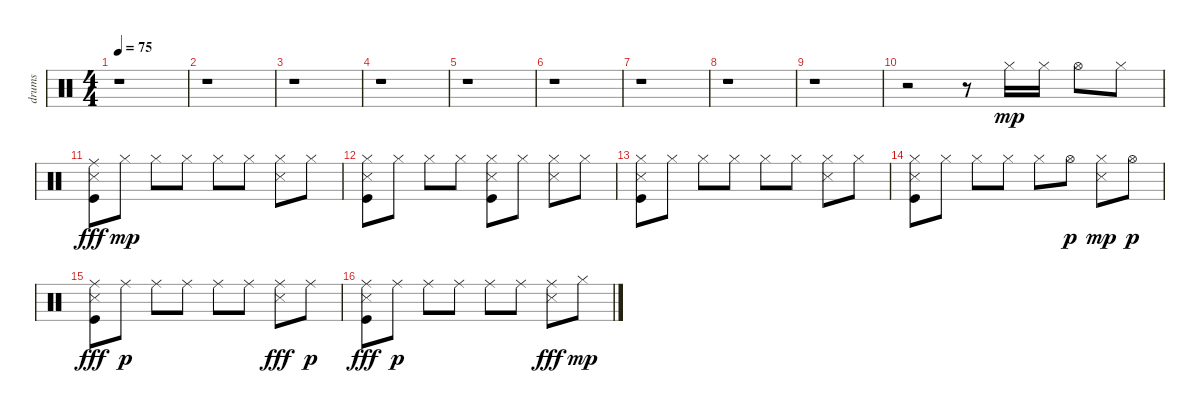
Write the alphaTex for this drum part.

\track ("drums" "drums") {instrument percussion}
\staff {score}
\articulation defaults
\ts (4 4)
\tempo 75
\clef neutral
\ks c
r.1{dy mp} |
r.1 |
r.1 |
r.1 |
r.1 |
r.1 |
r.1 |
r.1 |
r.1 |
r.2 r.8 "Hi-Hat (closed)".16 "Hi-Hat (closed)".16 "Hi-Hat (open)".8 "Hi-Hat (closed)".8 |
("Ride (middle)" "Metronome (hit)" "Kick (hit)").8{dy fff} "Hi-Hat (closed)".8{dy mp} "Hi-Hat (closed)".8 "Hi-Hat (closed)".8 "Hi-Hat (closed)".8 "Hi-Hat (closed)".8 ("Metronome (hit)" "Hi-Hat (closed)").8 "Hi-Hat (closed)".8 |
("Metronome (hit)" "Hi-Hat (closed)" "Kick (hit)").8 "Hi-Hat (closed)".8 "Hi-Hat (closed)".8 "Hi-Hat (closed)".8 ("Metronome (hit)" "Hi-Hat (closed)" "Kick (hit)").8 "Hi-Hat (closed)".8 ("Metronome (hit)" "Hi-Hat (closed)").8 "Hi-Hat (closed)".8 |
("Metronome (hit)" "Hi-Hat (closed)" "Kick (hit)").8 "Hi-Hat (closed)".8 "Hi-Hat (closed)".8 "Hi-Hat (closed)".8 "Hi-Hat (closed)".8 "Hi-Hat (closed)".8 ("Metronome (hit)" "Hi-Hat (closed)").8 "Hi-Hat (closed)".8 |
("Metronome (hit)" "Hi-Hat (closed)" "Kick (hit)").8 "Hi-Hat (closed)".8 "Hi-Hat (closed)".8 "Hi-Hat (closed)".8 "Hi-Hat (closed)".8 "Hi-Hat (open)".8{dy p} ("Metronome (hit)" "Hi-Hat (closed)").8{dy mp} "Hi-Hat (open)".8{dy p} |
("Ride (middle)" "Metronome (hit)" "Kick (hit)").8{dy fff} "Ride (middle)".8{dy p} "Ride (middle)".8 "Ride (middle)".8 "Ride (middle)".8 "Ride (middle)".8 ("Ride (middle)" "Metronome (hit)").8{dy fff} "Ride (middle)".8{dy p} |
("Ride (middle)" "Metronome (hit)" "Kick (hit)").8{dy fff} "Ride (middle)".8{dy p} "Ride (middle)".8 "Ride (middle)".8 "Ride (middle)".8 "Ride (middle)".8 ("Ride (middle)" "Metronome (hit)").8{dy fff} "Hi-Hat (closed)".8{dy mp}
